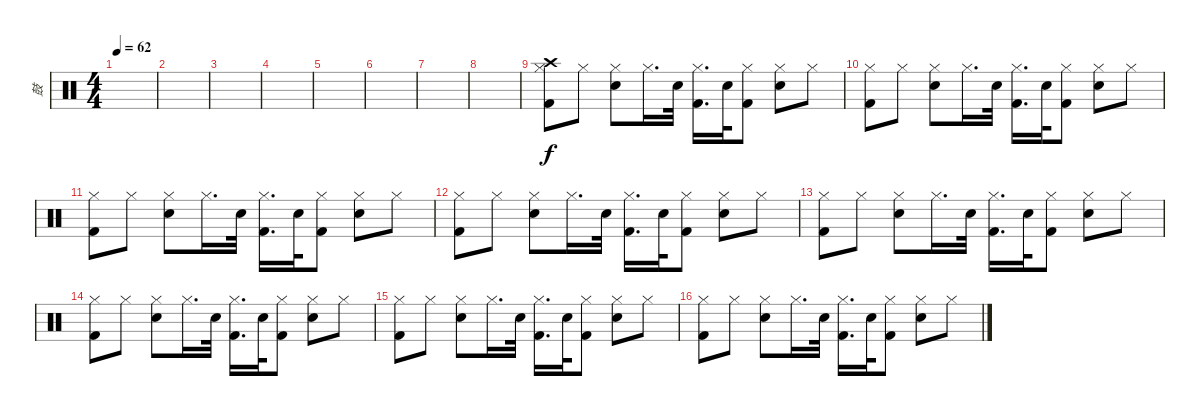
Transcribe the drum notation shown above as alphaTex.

\track ("鼓" "鼓") {instrument percussion}
\staff {score}
\articulation defaults
\ts (4 4)
\tempo 62
\clef neutral
\ks c
|
|
|
|
|
|
|
|
("Kick (hit) 2" "Crash high (hit)" "Hi-Hat (closed)").8 "Hi-Hat (closed)".8 ("Electric Snare (hit)" "Hi-Hat (closed)").8 "Hi-Hat (closed)".16{d} "Electric Snare (hit)".32 ("Kick (hit) 2" "Hi-Hat (closed)").16{d} "Electric Snare (hit)".32 ("Kick (hit) 2" "Hi-Hat (closed)").8 ("Electric Snare (hit)" "Hi-Hat (closed)").8 "Hi-Hat (closed)".8 |
("Kick (hit) 2" "Hi-Hat (closed)").8 "Hi-Hat (closed)".8 ("Electric Snare (hit)" "Hi-Hat (closed)").8 "Hi-Hat (closed)".16{d} "Electric Snare (hit)".32 ("Kick (hit) 2" "Hi-Hat (closed)").16{d} "Electric Snare (hit)".32 ("Kick (hit) 2" "Hi-Hat (closed)").8 ("Electric Snare (hit)" "Hi-Hat (closed)").8 "Hi-Hat (closed)".8 |
("Kick (hit) 2" "Hi-Hat (closed)").8 "Hi-Hat (closed)".8 ("Electric Snare (hit)" "Hi-Hat (closed)").8 "Hi-Hat (closed)".16{d} "Electric Snare (hit)".32 ("Kick (hit) 2" "Hi-Hat (closed)").16{d} "Electric Snare (hit)".32 ("Kick (hit) 2" "Hi-Hat (closed)").8 ("Electric Snare (hit)" "Hi-Hat (closed)").8 "Hi-Hat (closed)".8 |
("Kick (hit) 2" "Hi-Hat (closed)").8 "Hi-Hat (closed)".8 ("Electric Snare (hit)" "Hi-Hat (closed)").8 "Hi-Hat (closed)".16{d} "Electric Snare (hit)".32 ("Kick (hit) 2" "Hi-Hat (closed)").16{d} "Electric Snare (hit)".32 ("Kick (hit) 2" "Hi-Hat (closed)").8 ("Electric Snare (hit)" "Hi-Hat (closed)").8 "Hi-Hat (closed)".8 |
("Kick (hit) 2" "Hi-Hat (closed)").8 "Hi-Hat (closed)".8 ("Electric Snare (hit)" "Hi-Hat (closed)").8 "Hi-Hat (closed)".16{d} "Electric Snare (hit)".32 ("Kick (hit) 2" "Hi-Hat (closed)").16{d} "Electric Snare (hit)".32 ("Kick (hit) 2" "Hi-Hat (closed)").8 ("Electric Snare (hit)" "Hi-Hat (closed)").8 "Hi-Hat (closed)".8 |
("Kick (hit) 2" "Hi-Hat (closed)").8 "Hi-Hat (closed)".8 ("Electric Snare (hit)" "Hi-Hat (closed)").8 "Hi-Hat (closed)".16{d} "Electric Snare (hit)".32 ("Kick (hit) 2" "Hi-Hat (closed)").16{d} "Electric Snare (hit)".32 ("Kick (hit) 2" "Hi-Hat (closed)").8 ("Electric Snare (hit)" "Hi-Hat (closed)").8 "Hi-Hat (closed)".8 |
("Kick (hit) 2" "Hi-Hat (closed)").8 "Hi-Hat (closed)".8 ("Electric Snare (hit)" "Hi-Hat (closed)").8 "Hi-Hat (closed)".16{d} "Electric Snare (hit)".32 ("Kick (hit) 2" "Hi-Hat (closed)").16{d} "Electric Snare (hit)".32 ("Kick (hit) 2" "Hi-Hat (closed)").8 ("Electric Snare (hit)" "Hi-Hat (closed)").8 "Hi-Hat (closed)".8 |
("Kick (hit) 2" "Hi-Hat (closed)").8 "Hi-Hat (closed)".8 ("Electric Snare (hit)" "Hi-Hat (closed)").8 "Hi-Hat (closed)".16{d} "Electric Snare (hit)".32 ("Kick (hit) 2" "Hi-Hat (closed)").16{d} "Electric Snare (hit)".32 ("Kick (hit) 2" "Hi-Hat (closed)").8 ("Electric Snare (hit)" "Hi-Hat (closed)").8 "Hi-Hat (closed)".8
